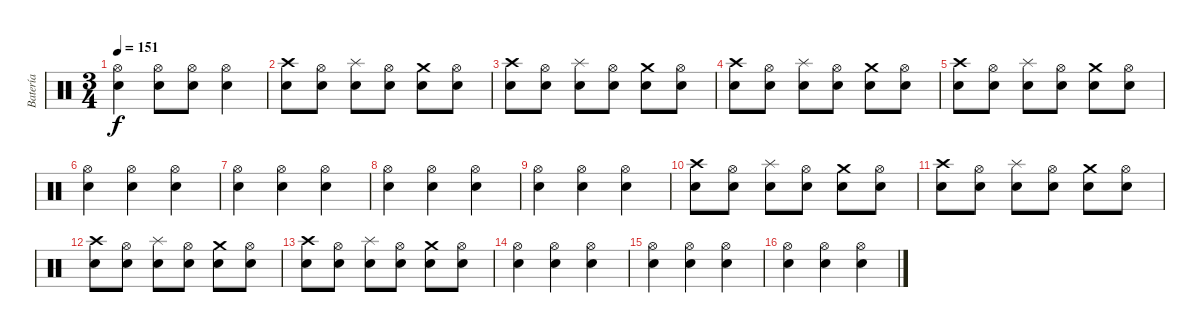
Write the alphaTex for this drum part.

\track ("Batería" "Batería") {instrument percussion}
\staff {score}
\articulation defaults
\ts (3 4)
\tempo 151
\clef neutral
\ks c
("Hi-Hat (open)" "Snare (hit) 2").4{dy f} ("Hi-Hat (open)" "Snare (hit) 2").8 ("Hi-Hat (open)" "Snare (hit) 2").8 ("Hi-Hat (open)" "Snare (hit) 2").4 |
("Crash high (hit)" "Snare (hit) 2").8 ("Hi-Hat (open)" "Snare (hit) 2").8 ("Splash (hit)" "Snare (hit) 2").8 ("Hi-Hat (open)" "Snare (hit) 2").8 ("Crash medium (hit)" "Snare (hit) 2").8 ("Hi-Hat (open)" "Snare (hit) 2").8 |
("Crash high (hit)" "Snare (hit) 2").8 ("Hi-Hat (open)" "Snare (hit) 2").8 ("Splash (hit)" "Snare (hit) 2").8 ("Hi-Hat (open)" "Snare (hit) 2").8 ("Crash medium (hit)" "Snare (hit) 2").8 ("Hi-Hat (open)" "Snare (hit) 2").8 |
("Crash high (hit)" "Snare (hit) 2").8 ("Hi-Hat (open)" "Snare (hit) 2").8 ("Splash (hit)" "Snare (hit) 2").8 ("Hi-Hat (open)" "Snare (hit) 2").8 ("Crash medium (hit)" "Snare (hit) 2").8 ("Hi-Hat (open)" "Snare (hit) 2").8 |
("Crash high (hit)" "Snare (hit) 2").8 ("Hi-Hat (open)" "Snare (hit) 2").8 ("Splash (hit)" "Snare (hit) 2").8 ("Hi-Hat (open)" "Snare (hit) 2").8 ("Crash medium (hit)" "Snare (hit) 2").8 ("Hi-Hat (open)" "Snare (hit) 2").8 |
("Hi-Hat (open)" "Snare (hit) 2").4 ("Hi-Hat (open)" "Snare (hit) 2").4 ("Hi-Hat (open)" "Snare (hit) 2").4 |
("Hi-Hat (open)" "Snare (hit) 2").4 ("Hi-Hat (open)" "Snare (hit) 2").4 ("Hi-Hat (open)" "Snare (hit) 2").4 |
("Hi-Hat (open)" "Snare (hit) 2").4 ("Hi-Hat (open)" "Snare (hit) 2").4 ("Hi-Hat (open)" "Snare (hit) 2").4 |
("Hi-Hat (open)" "Snare (hit) 2").4 ("Hi-Hat (open)" "Snare (hit) 2").4 ("Hi-Hat (open)" "Snare (hit) 2").4 |
("Crash high (hit)" "Snare (hit) 2").8 ("Hi-Hat (open)" "Snare (hit) 2").8 ("Splash (hit)" "Snare (hit) 2").8 ("Hi-Hat (open)" "Snare (hit) 2").8 ("Crash medium (hit)" "Snare (hit) 2").8 ("Hi-Hat (open)" "Snare (hit) 2").8 |
("Crash high (hit)" "Snare (hit) 2").8 ("Hi-Hat (open)" "Snare (hit) 2").8 ("Splash (hit)" "Snare (hit) 2").8 ("Hi-Hat (open)" "Snare (hit) 2").8 ("Crash medium (hit)" "Snare (hit) 2").8 ("Hi-Hat (open)" "Snare (hit) 2").8 |
("Crash high (hit)" "Snare (hit) 2").8 ("Hi-Hat (open)" "Snare (hit) 2").8 ("Splash (hit)" "Snare (hit) 2").8 ("Hi-Hat (open)" "Snare (hit) 2").8 ("Crash medium (hit)" "Snare (hit) 2").8 ("Hi-Hat (open)" "Snare (hit) 2").8 |
("Crash high (hit)" "Snare (hit) 2").8 ("Hi-Hat (open)" "Snare (hit) 2").8 ("Splash (hit)" "Snare (hit) 2").8 ("Hi-Hat (open)" "Snare (hit) 2").8 ("Crash medium (hit)" "Snare (hit) 2").8 ("Hi-Hat (open)" "Snare (hit) 2").8 |
("Hi-Hat (open)" "Snare (hit) 2").4 ("Hi-Hat (open)" "Snare (hit) 2").4 ("Hi-Hat (open)" "Snare (hit) 2").4 |
("Hi-Hat (open)" "Snare (hit) 2").4 ("Hi-Hat (open)" "Snare (hit) 2").4 ("Hi-Hat (open)" "Snare (hit) 2").4 |
("Hi-Hat (open)" "Snare (hit) 2").4 ("Hi-Hat (open)" "Snare (hit) 2").4 ("Hi-Hat (open)" "Snare (hit) 2").4
